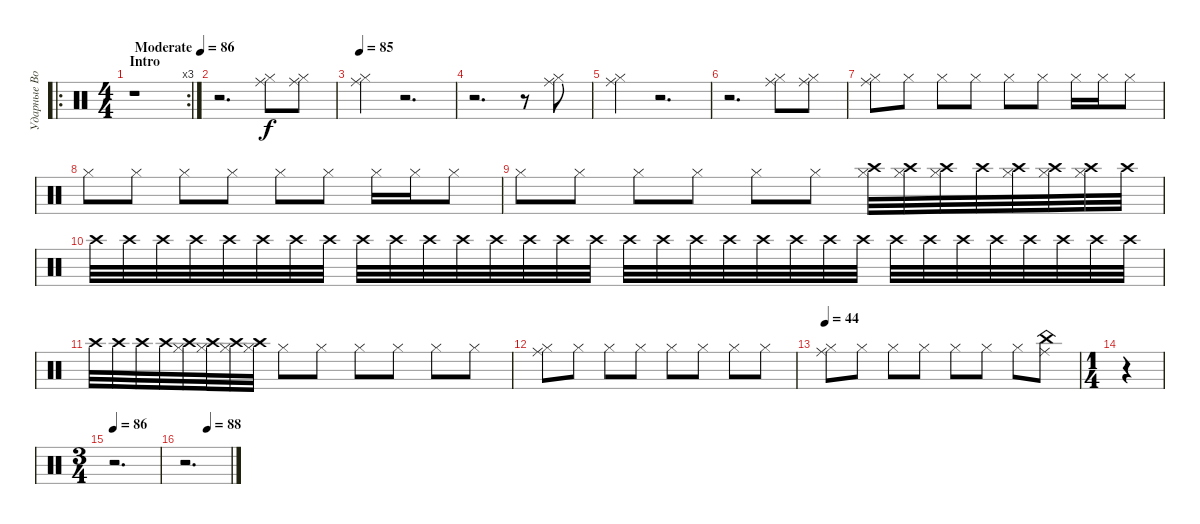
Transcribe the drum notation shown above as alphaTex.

\track ("Ударные Bostaph" "Ударные Bo") {instrument percussion}
\staff {score}
\articulation defaults
\ro
\rc 3
\ts (4 4)
\section ("" "Intro")
\tempo (86 "Moderate")
\clef neutral
\ks c
r.1{dy f} |
r.2{d} ("Ride (middle)" "Hi-Hat (closed)").8 ("Ride (middle)" "Hi-Hat (closed)").8 |
\tempo 85
("Ride (middle)" "Hi-Hat (closed)").4 r.2{d} |
r.2{d} r.8 ("Ride (middle)" "Hi-Hat (closed)").8 |
("Ride (middle)" "Hi-Hat (closed)").4 r.2{d} |
r.2{d} ("Ride (middle)" "Hi-Hat (closed)").8 ("Ride (middle)" "Hi-Hat (closed)").8 |
("Ride (middle)" "Hi-Hat (closed)").8 "Hi-Hat (closed)".8 "Hi-Hat (closed)".8 "Hi-Hat (closed)".8 "Hi-Hat (closed)".8 "Hi-Hat (closed)".8 "Hi-Hat (closed)".16 "Hi-Hat (closed)".16 "Hi-Hat (closed)".8 |
"Hi-Hat (closed)".8 "Hi-Hat (closed)".8 "Hi-Hat (closed)".8 "Hi-Hat (closed)".8 "Hi-Hat (closed)".8 "Hi-Hat (closed)".8 "Hi-Hat (closed)".16 "Hi-Hat (closed)".16 "Hi-Hat (closed)".8 |
"Hi-Hat (closed)".8 "Hi-Hat (closed)".8 "Hi-Hat (closed)".8 "Hi-Hat (closed)".8 "Hi-Hat (closed)".8 "Hi-Hat (closed)".8 ("Crash high (hit)" "Hi-Hat (closed)").32{volume 8} ("Crash high (hit)" "Hi-Hat (closed)").32 ("Crash high (hit)" "Hi-Hat (closed)").32 "Crash high (hit)".32 ("Crash high (hit)" "Hi-Hat (closed)").32 ("Crash high (hit)" "Hi-Hat (closed)").32 ("Crash high (hit)" "Hi-Hat (closed)").32 "Crash high (hit)".32 |
"Crash high (hit)".32 "Crash high (hit)".32 "Crash high (hit)".32 "Crash high (hit)".32 "Crash high (hit)".32 "Crash high (hit)".32 "Crash high (hit)".32 "Crash high (hit)".32 "Crash high (hit)".32 "Crash high (hit)".32 "Crash high (hit)".32 "Crash high (hit)".32 "Crash high (hit)".32 "Crash high (hit)".32 "Crash high (hit)".32 "Crash high (hit)".32 "Crash high (hit)".32 "Crash high (hit)".32 "Crash high (hit)".32 "Crash high (hit)".32 "Crash high (hit)".32 "Crash high (hit)".32 "Crash high (hit)".32 "Crash high (hit)".32 "Crash high (hit)".32 "Crash high (hit)".32 "Crash high (hit)".32 "Crash high (hit)".32 "Crash high (hit)".32 "Crash high (hit)".32 "Crash high (hit)".32 "Crash high (hit)".32 |
"Crash high (hit)".32{volume 11} "Crash high (hit)".32 "Crash high (hit)".32 "Crash high (hit)".32 ("Crash high (hit)" "Hi-Hat (closed)").32 ("Crash high (hit)" "Hi-Hat (closed)").32 ("Crash high (hit)" "Hi-Hat (closed)").32 ("Crash high (hit)" "Hi-Hat (closed)").32 "Hi-Hat (closed)".8 "Hi-Hat (closed)".8 "Hi-Hat (closed)".8 "Hi-Hat (closed)".8 "Hi-Hat (closed)".8 "Hi-Hat (closed)".8 |
("Ride (middle)" "Hi-Hat (closed)").8 "Hi-Hat (closed)".8 "Hi-Hat (closed)".8 "Hi-Hat (closed)".8 "Hi-Hat (closed)".8 "Hi-Hat (closed)".8 "Hi-Hat (closed)".8 "Hi-Hat (closed)".8 |
\tempo 44
("Ride (middle)" "Hi-Hat (closed)").8 "Hi-Hat (closed)".8 "Hi-Hat (closed)".8 "Hi-Hat (closed)".8 "Hi-Hat (closed)".8 "Hi-Hat (closed)".8 "Hi-Hat (closed)".8 ("China (hit)" "Ride (middle)").8 |
\ts (1 4)
r.4{volume 14} |
\ts (3 4)
\tempo 86
r.2{d} |
\tempo (88 0.5)
r.2{d}
